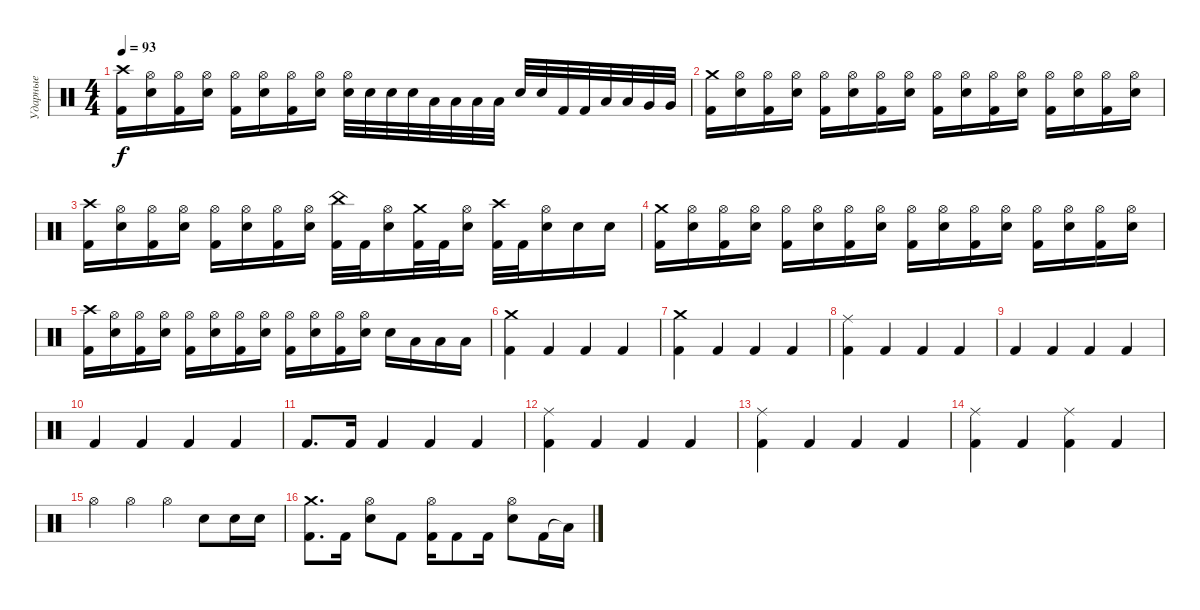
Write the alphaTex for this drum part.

\track ("Ударные" "Ударные") {instrument percussion}
\staff {score}
\articulation defaults
\ts (4 4)
\tempo 93
\clef neutral
\ks c
("Crash high (hit)" "Kick (hit) 2").16{dy f} ("Hi-Hat (open)" "Snare (hit) 2").16 ("Hi-Hat (open)" "Kick (hit) 2").16 ("Hi-Hat (open)" "Snare (hit) 2").16 ("Hi-Hat (open)" "Kick (hit) 2").16 ("Hi-Hat (open)" "Snare (hit) 2").16 ("Hi-Hat (open)" "Kick (hit) 2").16 ("Hi-Hat (open)" "Snare (hit) 2").16 ("Hi-Hat (open)" "Snare (hit) 2").32 "Snare (hit) 2".32 "Snare (hit) 2".32 "Snare (hit) 2".32 "Low Tom (hit)".32 "Low Tom (hit)".32 "Low Tom (hit)".32 "Low Tom (hit)".32 "Snare (hit) 2".32 "Snare (hit) 2".32 "Kick (hit) 2".32 "Kick (hit) 2".32 "Low Tom (hit)".32 "Low Tom (hit)".32 "Very Low Tom (hit)".32 "Very Low Tom (hit)".32 |
("Crash medium (hit)" "Kick (hit) 2").16 ("Hi-Hat (open)" "Snare (hit) 2").16 ("Hi-Hat (open)" "Kick (hit) 2").16 ("Hi-Hat (open)" "Snare (hit) 2").16 ("Hi-Hat (open)" "Kick (hit) 2").16 ("Hi-Hat (open)" "Snare (hit) 2").16 ("Hi-Hat (open)" "Kick (hit) 2").16 ("Hi-Hat (open)" "Snare (hit) 2").16 ("Hi-Hat (open)" "Kick (hit) 2").16 ("Hi-Hat (open)" "Snare (hit) 2").16 ("Hi-Hat (open)" "Kick (hit) 2").16 ("Hi-Hat (open)" "Snare (hit) 2").16 ("Hi-Hat (open)" "Kick (hit) 2").16 ("Hi-Hat (open)" "Snare (hit) 2").16 ("Hi-Hat (open)" "Kick (hit) 2").16 ("Hi-Hat (open)" "Snare (hit) 2").16 |
("Crash high (hit)" "Kick (hit) 2").16 ("Hi-Hat (open)" "Snare (hit) 2").16 ("Hi-Hat (open)" "Kick (hit) 2").16 ("Hi-Hat (open)" "Snare (hit) 2").16 ("Hi-Hat (open)" "Kick (hit) 2").16 ("Hi-Hat (open)" "Snare (hit) 2").16 ("Hi-Hat (open)" "Kick (hit) 2").16 ("Hi-Hat (open)" "Snare (hit) 2").16 ("China (hit)" "Kick (hit) 2").32 "Kick (hit) 2".32 ("Hi-Hat (open)" "Snare (hit) 2").16 ("Crash medium (hit)" "Kick (hit) 2").32 "Kick (hit) 2".32 ("Hi-Hat (open)" "Snare (hit) 2").16 ("Crash high (hit)" "Kick (hit) 2").32 "Kick (hit) 2".32 ("Hi-Hat (open)" "Snare (hit) 2").16 "Snare (hit) 2".16 "Snare (hit) 2".16 |
("Crash medium (hit)" "Kick (hit) 2").16 ("Hi-Hat (open)" "Snare (hit) 2").16 ("Hi-Hat (open)" "Kick (hit) 2").16 ("Hi-Hat (open)" "Snare (hit) 2").16 ("Hi-Hat (open)" "Kick (hit) 2").16 ("Hi-Hat (open)" "Snare (hit) 2").16 ("Hi-Hat (open)" "Kick (hit) 2").16 ("Hi-Hat (open)" "Snare (hit) 2").16 ("Hi-Hat (open)" "Kick (hit) 2").16 ("Hi-Hat (open)" "Snare (hit) 2").16 ("Hi-Hat (open)" "Kick (hit) 2").16 ("Hi-Hat (open)" "Snare (hit) 2").16 ("Hi-Hat (open)" "Kick (hit) 2").16 ("Hi-Hat (open)" "Snare (hit) 2").16 ("Hi-Hat (open)" "Kick (hit) 2").16 ("Hi-Hat (open)" "Snare (hit) 2").16 |
("Crash high (hit)" "Kick (hit) 2").16 ("Hi-Hat (open)" "Snare (hit) 2").16 ("Hi-Hat (open)" "Kick (hit) 2").16 ("Hi-Hat (open)" "Snare (hit) 2").16 ("Hi-Hat (open)" "Kick (hit) 2").16 ("Hi-Hat (open)" "Snare (hit) 2").16 ("Hi-Hat (open)" "Kick (hit) 2").16 ("Hi-Hat (open)" "Snare (hit) 2").16 ("Hi-Hat (open)" "Kick (hit) 2").16 ("Hi-Hat (open)" "Snare (hit) 2").16 ("Hi-Hat (open)" "Kick (hit) 2").16 ("Hi-Hat (open)" "Snare (hit) 2").16 "Snare (hit) 2".16 "Low Tom (hit)".16 "Low Tom (hit)".16 "Low Tom (hit)".16 |
("Crash medium (hit)" "Kick (hit) 2").4 "Kick (hit) 2".4 "Kick (hit) 2".4 "Kick (hit) 2".4 |
("Crash medium (hit)" "Kick (hit) 2").4 "Kick (hit) 2".4 "Kick (hit) 2".4 "Kick (hit) 2".4 |
("Ride (middle)" "Kick (hit) 2").4 "Kick (hit) 2".4 "Kick (hit) 2".4 "Kick (hit) 2".4 |
"Kick (hit) 2".4 "Kick (hit) 2".4 "Kick (hit) 2".4 "Kick (hit) 2".4 |
"Kick (hit) 2".4 "Kick (hit) 2".4 "Kick (hit) 2".4 "Kick (hit) 2".4 |
"Kick (hit) 2".8{d} "Kick (hit) 2".16 "Kick (hit) 2".4 "Kick (hit) 2".4 "Kick (hit) 2".4 |
("Ride (middle)" "Kick (hit) 2").4 "Kick (hit) 2".4 "Kick (hit) 2".4 "Kick (hit) 2".4 |
("Ride (middle)" "Kick (hit) 2").4 "Kick (hit) 2".4 "Kick (hit) 2".4 "Kick (hit) 2".4 |
("Ride (middle)" "Kick (hit) 2").4 "Kick (hit) 2".4 ("Ride (middle)" "Kick (hit) 2").4 "Kick (hit) 2".4 |
"Hi-Hat (open)".4 "Hi-Hat (open)".4 "Hi-Hat (open)".4 "Snare (hit) 2".8 "Snare (hit) 2".16 "Snare (hit) 2".16 |
("Crash medium (hit)" "Kick (hit) 2").8{d} "Kick (hit) 2".16 ("Hi-Hat (open)" "Snare (hit) 2").8 "Kick (hit) 2".8 ("Hi-Hat (open)" "Kick (hit) 2").16 "Kick (hit) 2".8 "Kick (hit) 2".16 ("Hi-Hat (open)" "Snare (hit) 2").8 "Kick (hit) 2".16 "Low Tom (hit)"{t}.16
